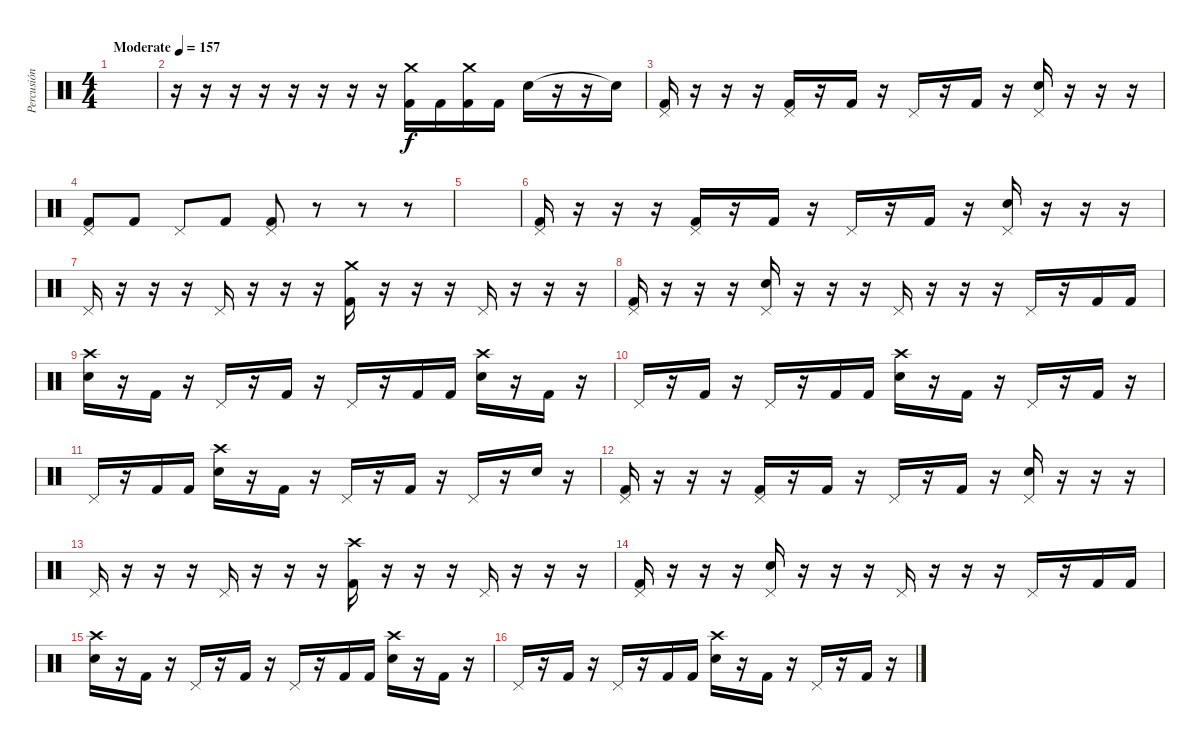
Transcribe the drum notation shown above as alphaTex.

\track ("Percusión" "Percusión") {instrument percussion}
\staff {score}
\articulation defaults
\ts (4 4)
\tempo (157 "Moderate")
\clef neutral
\ks c
|
r.16 r.16 r.16 r.16 r.16 r.16 r.16 r.16 ("Crash medium (hit)" "Kick (hit) 2").16 "Kick (hit) 2".16 ("Crash medium (hit)" "Kick (hit) 2").16 "Kick (hit) 2".16 "Electric Snare (hit)".16 r.16 r.16 "Snare (hit)"{t}.16 |
("Pedal Hi-Hat (hit)" "Kick (hit) 2").16 r.16 r.16 r.16 ("Pedal Hi-Hat (hit)" "Kick (hit) 2").16 r.16 "Kick (hit) 2".16 r.16 "Pedal Hi-Hat (hit)".16 r.16 "Kick (hit) 2".16 r.16 ("Pedal Hi-Hat (hit)" "Electric Snare (hit)").16 r.16 r.16 r.16 |
("Pedal Hi-Hat (hit)" "Kick (hit) 2").8 "Kick (hit) 2".8 "Pedal Hi-Hat (hit)".8 "Kick (hit) 2".8 ("Pedal Hi-Hat (hit)" "Kick (hit) 2").8 r.8 r.8 r.8 |
|
("Pedal Hi-Hat (hit)" "Kick (hit) 2").16 r.16 r.16 r.16 ("Pedal Hi-Hat (hit)" "Kick (hit) 2").16 r.16 "Kick (hit) 2".16 r.16 "Pedal Hi-Hat (hit)".16 r.16 "Kick (hit) 2".16 r.16 ("Pedal Hi-Hat (hit)" "Electric Snare (hit)").16 r.16 r.16 r.16 |
"Pedal Hi-Hat (hit)".16 r.16 r.16 r.16 "Pedal Hi-Hat (hit)".16 r.16 r.16 r.16 ("Crash medium (hit)" "Kick (hit) 2").16 r.16 r.16 r.16 "Pedal Hi-Hat (hit)".16 r.16 r.16 r.16 |
("Pedal Hi-Hat (hit)" "Kick (hit) 2").16 r.16 r.16 r.16 ("Pedal Hi-Hat (hit)" "Electric Snare (hit)").16 r.16 r.16 r.16 "Pedal Hi-Hat (hit)".16 r.16 r.16 r.16 "Pedal Hi-Hat (hit)".16 r.16 "Kick (hit) 2".16 "Kick (hit) 2".16 |
("Crash high (hit)" "Electric Snare (hit)").16 r.16 "Kick (hit) 2".16 r.16 "Pedal Hi-Hat (hit)".16 r.16 "Kick (hit) 2".16 r.16 "Pedal Hi-Hat (hit)".16 r.16 "Kick (hit) 2".16 "Kick (hit) 2".16 ("Crash high (hit)" "Electric Snare (hit)").16 r.16 "Kick (hit) 2".16 r.16 |
"Pedal Hi-Hat (hit)".16 r.16 "Kick (hit) 2".16 r.16 "Pedal Hi-Hat (hit)".16 r.16 "Kick (hit) 2".16 "Kick (hit) 2".16 ("Crash high (hit)" "Electric Snare (hit)").16 r.16 "Kick (hit) 2".16 r.16 "Pedal Hi-Hat (hit)".16 r.16 "Kick (hit) 2".16 r.16 |
"Pedal Hi-Hat (hit)".16 r.16 "Kick (hit) 2".16 "Kick (hit) 2".16 ("Crash high (hit)" "Electric Snare (hit)").16 r.16 "Kick (hit) 2".16 r.16 "Pedal Hi-Hat (hit)".16 r.16 "Kick (hit) 2".16 r.16 "Pedal Hi-Hat (hit)".16 r.16 "Electric Snare (hit)".16 r.16 |
("Pedal Hi-Hat (hit)" "Kick (hit) 2").16 r.16 r.16 r.16 ("Pedal Hi-Hat (hit)" "Kick (hit) 2").16 r.16 "Kick (hit) 2".16 r.16 "Pedal Hi-Hat (hit)".16 r.16 "Kick (hit) 2".16 r.16 ("Pedal Hi-Hat (hit)" "Electric Snare (hit)").16 r.16 r.16 r.16 |
"Pedal Hi-Hat (hit)".16 r.16 r.16 r.16 "Pedal Hi-Hat (hit)".16 r.16 r.16 r.16 ("Crash high (hit)" "Kick (hit) 2").16 r.16 r.16 r.16 "Pedal Hi-Hat (hit)".16 r.16 r.16 r.16 |
("Pedal Hi-Hat (hit)" "Kick (hit) 2").16 r.16 r.16 r.16 ("Pedal Hi-Hat (hit)" "Electric Snare (hit)").16 r.16 r.16 r.16 "Pedal Hi-Hat (hit)".16 r.16 r.16 r.16 "Pedal Hi-Hat (hit)".16 r.16 "Kick (hit) 2".16 "Kick (hit) 2".16 |
("Crash high (hit)" "Electric Snare (hit)").16 r.16 "Kick (hit) 2".16 r.16 "Pedal Hi-Hat (hit)".16 r.16 "Kick (hit) 2".16 r.16 "Pedal Hi-Hat (hit)".16 r.16 "Kick (hit) 2".16 "Kick (hit) 2".16 ("Crash high (hit)" "Electric Snare (hit)").16 r.16 "Kick (hit) 2".16 r.16 |
"Pedal Hi-Hat (hit)".16 r.16 "Kick (hit) 2".16 r.16 "Pedal Hi-Hat (hit)".16 r.16 "Kick (hit) 2".16 "Kick (hit) 2".16 ("Crash high (hit)" "Electric Snare (hit)").16 r.16 "Kick (hit) 2".16 r.16 "Pedal Hi-Hat (hit)".16 r.16 "Kick (hit) 2".16 r.16
